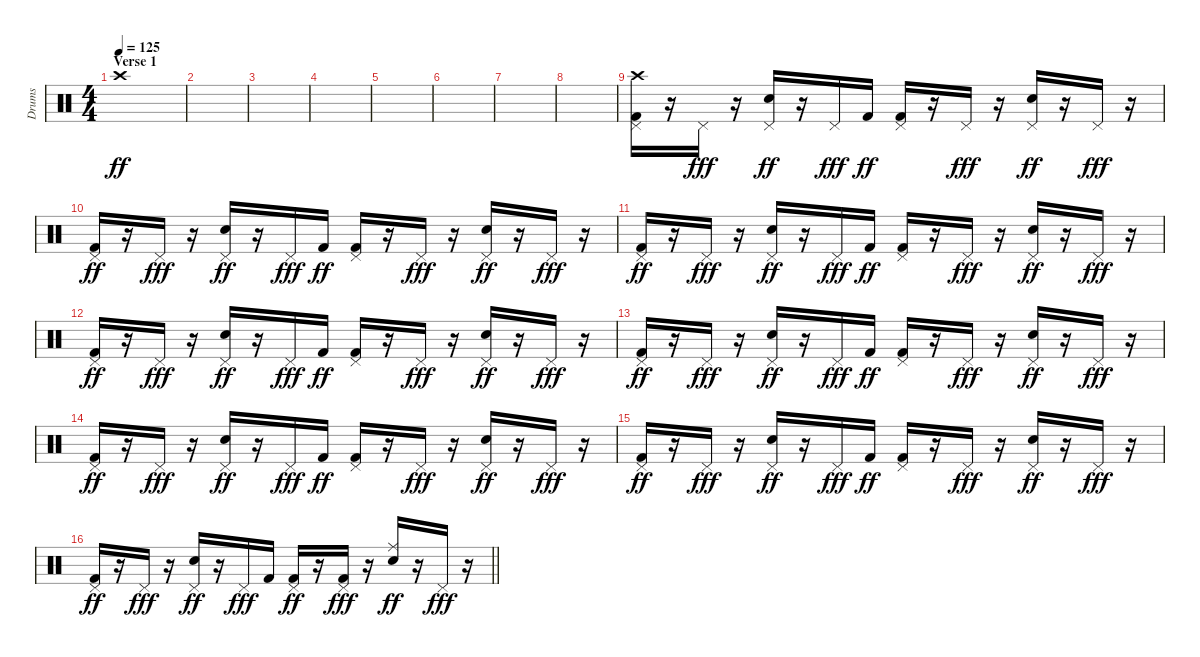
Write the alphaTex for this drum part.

\track ("Drums " "Drums ") {instrument percussion}
\staff {score}
\articulation defaults
\ts (4 4)
\section ("" "Verse 1")
\tempo 125
\clef neutral
\ks c "Crash high (hit)".1{dy ff}
|
|
|
|
|
|
|
|
("Crash high (hit)" "Pedal Hi-Hat (hit)" "Kick (hit) 2").16 r.16 "Pedal Hi-Hat (hit)".16{dy fff} r.16 ("Pedal Hi-Hat (hit)" "Electric Snare (hit)").16{dy ff} r.16 "Pedal Hi-Hat (hit)".16{dy fff} "Kick (hit) 2".16{dy ff} ("Pedal Hi-Hat (hit)" "Kick (hit) 2").16 r.16 "Pedal Hi-Hat (hit)".16{dy fff} r.16 ("Pedal Hi-Hat (hit)" "Electric Snare (hit)").16{dy ff} r.16 "Pedal Hi-Hat (hit)".16{dy fff} r.16 |
("Pedal Hi-Hat (hit)" "Kick (hit) 2").16{dy ff} r.16 "Pedal Hi-Hat (hit)".16{dy fff} r.16 ("Pedal Hi-Hat (hit)" "Electric Snare (hit)").16{dy ff} r.16 "Pedal Hi-Hat (hit)".16{dy fff} "Kick (hit) 2".16{dy ff} ("Pedal Hi-Hat (hit)" "Kick (hit) 2").16 r.16 "Pedal Hi-Hat (hit)".16{dy fff} r.16 ("Pedal Hi-Hat (hit)" "Electric Snare (hit)").16{dy ff} r.16 "Pedal Hi-Hat (hit)".16{dy fff} r.16 |
("Pedal Hi-Hat (hit)" "Kick (hit) 2").16{dy ff} r.16 "Pedal Hi-Hat (hit)".16{dy fff} r.16 ("Pedal Hi-Hat (hit)" "Electric Snare (hit)").16{dy ff} r.16 "Pedal Hi-Hat (hit)".16{dy fff} "Kick (hit) 2".16{dy ff} ("Pedal Hi-Hat (hit)" "Kick (hit) 2").16 r.16 "Pedal Hi-Hat (hit)".16{dy fff} r.16 ("Pedal Hi-Hat (hit)" "Electric Snare (hit)").16{dy ff} r.16 "Pedal Hi-Hat (hit)".16{dy fff} r.16 |
("Pedal Hi-Hat (hit)" "Kick (hit) 2").16{dy ff} r.16 "Pedal Hi-Hat (hit)".16{dy fff} r.16 ("Pedal Hi-Hat (hit)" "Electric Snare (hit)").16{dy ff} r.16 "Pedal Hi-Hat (hit)".16{dy fff} "Kick (hit) 2".16{dy ff} ("Pedal Hi-Hat (hit)" "Kick (hit) 2").16 r.16 "Pedal Hi-Hat (hit)".16{dy fff} r.16 ("Pedal Hi-Hat (hit)" "Electric Snare (hit)").16{dy ff} r.16 "Pedal Hi-Hat (hit)".16{dy fff} r.16 |
("Pedal Hi-Hat (hit)" "Kick (hit) 2").16{dy ff} r.16 "Pedal Hi-Hat (hit)".16{dy fff} r.16 ("Pedal Hi-Hat (hit)" "Electric Snare (hit)").16{dy ff} r.16 "Pedal Hi-Hat (hit)".16{dy fff} "Kick (hit) 2".16{dy ff} ("Pedal Hi-Hat (hit)" "Kick (hit) 2").16 r.16 "Pedal Hi-Hat (hit)".16{dy fff} r.16 ("Pedal Hi-Hat (hit)" "Electric Snare (hit)").16{dy ff} r.16 "Pedal Hi-Hat (hit)".16{dy fff} r.16 |
("Pedal Hi-Hat (hit)" "Kick (hit) 2").16{dy ff} r.16 "Pedal Hi-Hat (hit)".16{dy fff} r.16 ("Pedal Hi-Hat (hit)" "Electric Snare (hit)").16{dy ff} r.16 "Pedal Hi-Hat (hit)".16{dy fff} "Kick (hit) 2".16{dy ff} ("Pedal Hi-Hat (hit)" "Kick (hit) 2").16 r.16 "Pedal Hi-Hat (hit)".16{dy fff} r.16 ("Pedal Hi-Hat (hit)" "Electric Snare (hit)").16{dy ff} r.16 "Pedal Hi-Hat (hit)".16{dy fff} r.16 |
("Pedal Hi-Hat (hit)" "Kick (hit) 2").16{dy ff} r.16 "Pedal Hi-Hat (hit)".16{dy fff} r.16 ("Pedal Hi-Hat (hit)" "Electric Snare (hit)").16{dy ff} r.16 "Pedal Hi-Hat (hit)".16{dy fff} "Kick (hit) 2".16{dy ff} ("Pedal Hi-Hat (hit)" "Kick (hit) 2").16 r.16 "Pedal Hi-Hat (hit)".16{dy fff} r.16 ("Pedal Hi-Hat (hit)" "Electric Snare (hit)").16{dy ff} r.16 "Pedal Hi-Hat (hit)".16{dy fff} r.16 |
\barLineRight lightlight
("Pedal Hi-Hat (hit)" "Kick (hit) 2").16{dy ff} r.16 "Pedal Hi-Hat (hit)".16{dy fff} r.16 ("Pedal Hi-Hat (hit)" "Electric Snare (hit)").16{dy ff} r.16 "Pedal Hi-Hat (hit)".16{dy fff} "Kick (hit) 2".16 ("Pedal Hi-Hat (hit)" "Kick (hit) 2").16{dy ff} r.16 ("Pedal Hi-Hat (hit)" "Kick (hit) 2").16{dy fff} r.16 ("Ride (middle)" "Electric Snare (hit)").16{dy ff} r.16 "Pedal Hi-Hat (hit)".16{dy fff} r.16
